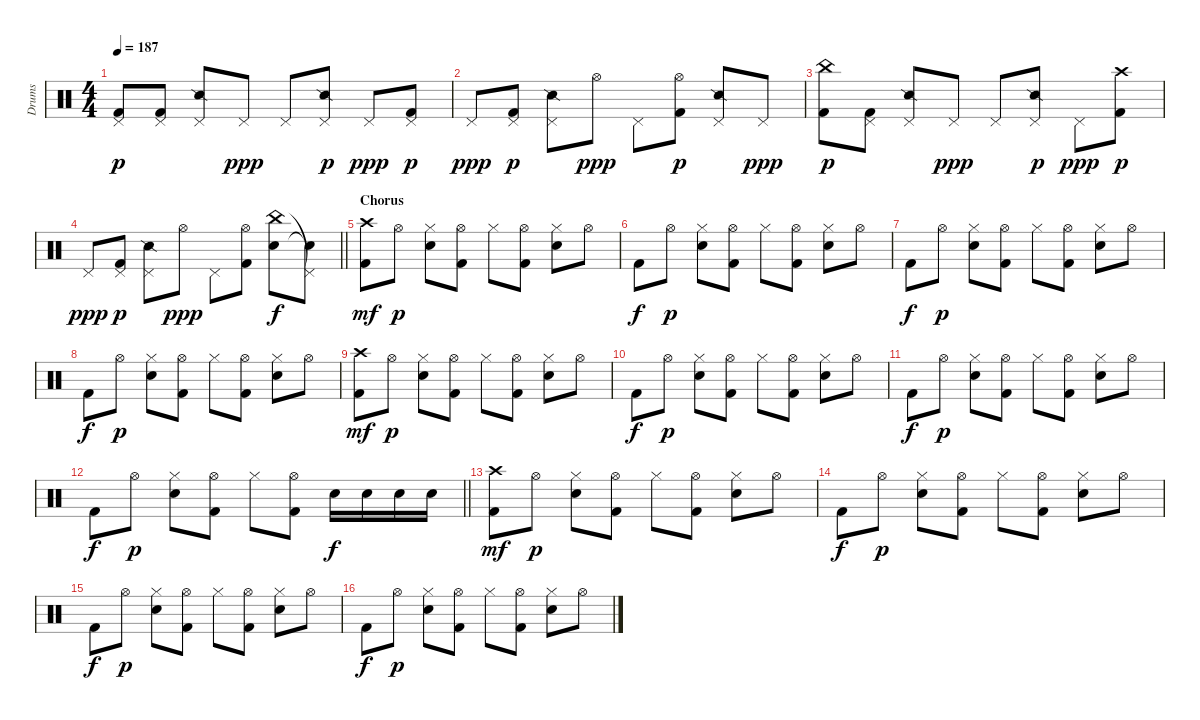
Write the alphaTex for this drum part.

\track ("Drums" "Drums") {instrument percussion}
\staff {score}
\articulation defaults
\ts (4 4)
\tempo 187
\clef neutral
\ks c
("Pedal Hi-Hat (hit)" "Kick (hit) 2").8{dy p} ("Pedal Hi-Hat (hit)" "Kick (hit) 2").8 ("Pedal Hi-Hat (hit)" "Snare (side stick) 2").8 "Pedal Hi-Hat (hit)".8{dy ppp} "Pedal Hi-Hat (hit)".8 ("Pedal Hi-Hat (hit)" "Snare (side stick) 2").8{dy p} "Pedal Hi-Hat (hit)".8{dy ppp} ("Pedal Hi-Hat (hit)" "Kick (hit) 2").8{dy p} |
"Pedal Hi-Hat (hit)".8{dy ppp} ("Pedal Hi-Hat (hit)" "Kick (hit) 2").8{dy p} ("Pedal Hi-Hat (hit)" "Snare (side stick) 2").8 "Hi-Hat (open)".8{dy ppp} "Pedal Hi-Hat (hit)".8 ("Hi-Hat (open)" "Kick (hit) 2").8{dy p} ("Pedal Hi-Hat (hit)" "Snare (side stick) 2").8 "Pedal Hi-Hat (hit)".8{dy ppp} |
("China (hit)" "Kick (hit) 2").8{dy p} ("Pedal Hi-Hat (hit)" "Kick (hit) 2").8 ("Pedal Hi-Hat (hit)" "Snare (side stick) 2").8 "Pedal Hi-Hat (hit)".8{dy ppp} "Pedal Hi-Hat (hit)".8 ("Pedal Hi-Hat (hit)" "Snare (side stick) 2").8{dy p} "Pedal Hi-Hat (hit)".8{dy ppp} ("Crash high (hit)" "Kick (hit) 2").8{dy p} |
\barLineRight lightlight "Pedal Hi-Hat (hit)".8{dy ppp}
("Pedal Hi-Hat (hit)" "Kick (hit) 2").8{dy p} ("Pedal Hi-Hat (hit)" "Snare (side stick) 2").8 "Hi-Hat (open)".8{dy ppp} "Pedal Hi-Hat (hit)".8 ("Hi-Hat (open)" "Kick (hit) 2").8 ("China (hit)" "Electric Snare (hit)").8{dy f} ("Pedal Hi-Hat (hit)"{t} "Snare (hit)"{t}).8 |
\section ("" "Chorus")
("Crash high (hit)" "Kick (hit) 2").8{dy mf} "Hi-Hat (open)".8{dy p} ("Hi-Hat (closed)" "Electric Snare (hit)").8 ("Hi-Hat (open)" "Kick (hit) 2").8 "Hi-Hat (closed)".8 ("Hi-Hat (open)" "Kick (hit) 2").8 ("Hi-Hat (closed)" "Electric Snare (hit)").8 "Hi-Hat (open)".8 |
"Kick (hit) 2".8{dy f} "Hi-Hat (open)".8{dy p} ("Hi-Hat (closed)" "Electric Snare (hit)").8 ("Hi-Hat (open)" "Kick (hit) 2").8 "Hi-Hat (closed)".8 ("Hi-Hat (open)" "Kick (hit) 2").8 ("Hi-Hat (closed)" "Electric Snare (hit)").8 "Hi-Hat (open)".8 |
"Kick (hit) 2".8{dy f} "Hi-Hat (open)".8{dy p} ("Hi-Hat (closed)" "Electric Snare (hit)").8 ("Hi-Hat (open)" "Kick (hit) 2").8 "Hi-Hat (closed)".8 ("Hi-Hat (open)" "Kick (hit) 2").8 ("Hi-Hat (closed)" "Electric Snare (hit)").8 "Hi-Hat (open)".8 |
"Kick (hit) 2".8{dy f} "Hi-Hat (open)".8{dy p} ("Hi-Hat (closed)" "Electric Snare (hit)").8 ("Hi-Hat (open)" "Kick (hit) 2").8 "Hi-Hat (closed)".8 ("Hi-Hat (open)" "Kick (hit) 2").8 ("Hi-Hat (closed)" "Electric Snare (hit)").8 "Hi-Hat (open)".8 |
("Crash high (hit)" "Kick (hit) 2").8{dy mf} "Hi-Hat (open)".8{dy p} ("Hi-Hat (closed)" "Electric Snare (hit)").8 ("Hi-Hat (open)" "Kick (hit) 2").8 "Hi-Hat (closed)".8 ("Hi-Hat (open)" "Kick (hit) 2").8 ("Hi-Hat (closed)" "Electric Snare (hit)").8 "Hi-Hat (open)".8 |
"Kick (hit) 2".8{dy f} "Hi-Hat (open)".8{dy p} ("Hi-Hat (closed)" "Electric Snare (hit)").8 ("Hi-Hat (open)" "Kick (hit) 2").8 "Hi-Hat (closed)".8 ("Hi-Hat (open)" "Kick (hit) 2").8 ("Hi-Hat (closed)" "Electric Snare (hit)").8 "Hi-Hat (open)".8 |
"Kick (hit) 2".8{dy f} "Hi-Hat (open)".8{dy p} ("Hi-Hat (closed)" "Electric Snare (hit)").8 ("Hi-Hat (open)" "Kick (hit) 2").8 "Hi-Hat (closed)".8 ("Hi-Hat (open)" "Kick (hit) 2").8 ("Hi-Hat (closed)" "Electric Snare (hit)").8 "Hi-Hat (open)".8 |
\barLineRight lightlight "Kick (hit) 2".8{dy f} "Hi-Hat (open)".8{dy p}
("Hi-Hat (closed)" "Electric Snare (hit)").8 ("Hi-Hat (open)" "Kick (hit) 2").8 "Hi-Hat (closed)".8 ("Hi-Hat (open)" "Kick (hit) 2").8 "Electric Snare (hit)".16{dy f} "Electric Snare (hit)".16 "Electric Snare (hit)".16 "Electric Snare (hit)".16 |
("Crash high (hit)" "Kick (hit) 2").8{dy mf} "Hi-Hat (open)".8{dy p} ("Hi-Hat (closed)" "Electric Snare (hit)").8 ("Hi-Hat (open)" "Kick (hit) 2").8 "Hi-Hat (closed)".8 ("Hi-Hat (open)" "Kick (hit) 2").8 ("Hi-Hat (closed)" "Electric Snare (hit)").8 "Hi-Hat (open)".8 |
"Kick (hit) 2".8{dy f} "Hi-Hat (open)".8{dy p} ("Hi-Hat (closed)" "Electric Snare (hit)").8 ("Hi-Hat (open)" "Kick (hit) 2").8 "Hi-Hat (closed)".8 ("Hi-Hat (open)" "Kick (hit) 2").8 ("Hi-Hat (closed)" "Electric Snare (hit)").8 "Hi-Hat (open)".8 |
"Kick (hit) 2".8{dy f} "Hi-Hat (open)".8{dy p} ("Hi-Hat (closed)" "Electric Snare (hit)").8 ("Hi-Hat (open)" "Kick (hit) 2").8 "Hi-Hat (closed)".8 ("Hi-Hat (open)" "Kick (hit) 2").8 ("Hi-Hat (closed)" "Electric Snare (hit)").8 "Hi-Hat (open)".8 |
"Kick (hit) 2".8{dy f} "Hi-Hat (open)".8{dy p} ("Hi-Hat (closed)" "Electric Snare (hit)").8 ("Hi-Hat (open)" "Kick (hit) 2").8 "Hi-Hat (closed)".8 ("Hi-Hat (open)" "Kick (hit) 2").8 ("Hi-Hat (closed)" "Electric Snare (hit)").8 "Hi-Hat (open)".8
